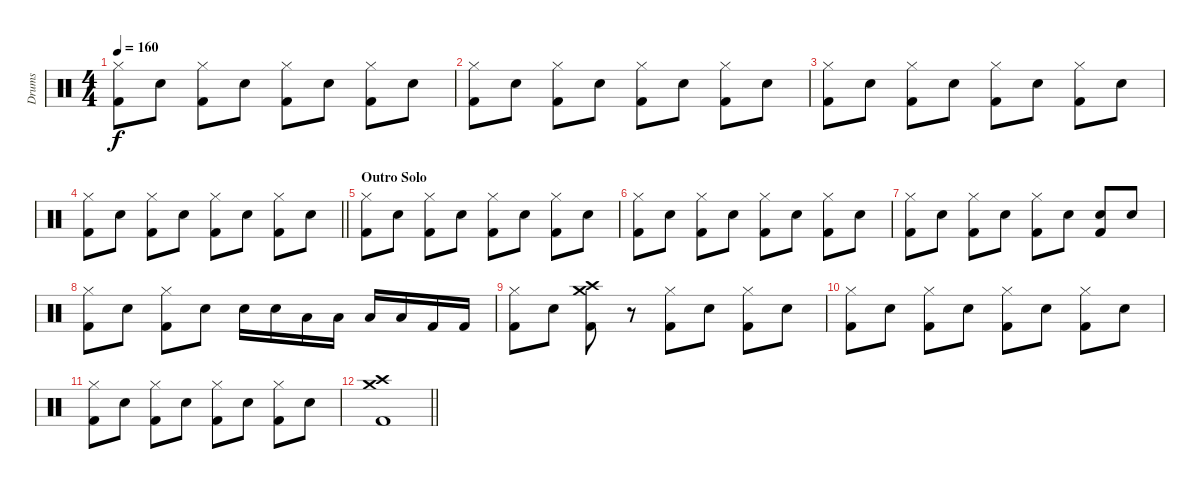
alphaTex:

\track ("Drums" "Drums") {instrument percussion}
\staff {score}
\articulation defaults
\ts (4 4)
\tempo 160
\clef neutral
\ks c
("Hi-Hat (closed)" "Kick (hit) 2").8{dy f} "Snare (hit) 2".8 ("Hi-Hat (closed)" "Kick (hit) 2").8 "Snare (hit) 2".8 ("Hi-Hat (closed)" "Kick (hit) 2").8 "Snare (hit) 2".8 ("Hi-Hat (closed)" "Kick (hit) 2").8 "Snare (hit) 2".8 |
("Hi-Hat (closed)" "Kick (hit) 2").8 "Snare (hit) 2".8 ("Hi-Hat (closed)" "Kick (hit) 2").8 "Snare (hit) 2".8 ("Hi-Hat (closed)" "Kick (hit) 2").8 "Snare (hit) 2".8 ("Hi-Hat (closed)" "Kick (hit) 2").8 "Snare (hit) 2".8 |
("Hi-Hat (closed)" "Kick (hit) 2").8 "Snare (hit) 2".8 ("Hi-Hat (closed)" "Kick (hit) 2").8 "Snare (hit) 2".8 ("Hi-Hat (closed)" "Kick (hit) 2").8 "Snare (hit) 2".8 ("Hi-Hat (closed)" "Kick (hit) 2").8 "Snare (hit) 2".8 |
\barLineRight lightlight
("Hi-Hat (closed)" "Kick (hit) 2").8 "Snare (hit) 2".8 ("Hi-Hat (closed)" "Kick (hit) 2").8 "Snare (hit) 2".8 ("Hi-Hat (closed)" "Kick (hit) 2").8 "Snare (hit) 2".8 ("Hi-Hat (closed)" "Kick (hit) 2").8 "Snare (hit) 2".8 |
\section ("" "Outro Solo")
("Hi-Hat (closed)" "Kick (hit) 2").8 "Snare (hit) 2".8 ("Hi-Hat (closed)" "Kick (hit) 2").8 "Snare (hit) 2".8 ("Hi-Hat (closed)" "Kick (hit) 2").8 "Snare (hit) 2".8 ("Hi-Hat (closed)" "Kick (hit) 2").8 "Snare (hit) 2".8 |
("Hi-Hat (closed)" "Kick (hit) 2").8 "Snare (hit) 2".8 ("Hi-Hat (closed)" "Kick (hit) 2").8 "Snare (hit) 2".8 ("Hi-Hat (closed)" "Kick (hit) 2").8 "Snare (hit) 2".8 ("Hi-Hat (closed)" "Kick (hit) 2").8 "Snare (hit) 2".8 |
("Hi-Hat (closed)" "Kick (hit) 2").8 "Snare (hit) 2".8 ("Hi-Hat (closed)" "Kick (hit) 2").8 "Snare (hit) 2".8 ("Hi-Hat (closed)" "Kick (hit) 2").8 "Snare (hit) 2".8 ("Snare (hit) 2" "Kick (hit) 2").8 "Snare (hit) 2".8 |
("Hi-Hat (closed)" "Kick (hit) 2").8 "Snare (hit) 2".8 ("Hi-Hat (closed)" "Kick (hit) 2").8 "Snare (hit) 2".8 "Snare (hit) 2".16 "Snare (hit) 2".16 "Low Tom (hit)".16 "Low Tom (hit)".16 "Low Floor Tom (hit)".16 "Low Floor Tom (hit)".16 "Kick (hit) 2".16 "Kick (hit) 2".16 |
("Hi-Hat (closed)" "Kick (hit) 2").8 "Snare (hit) 2".8 ("Crash high (hit)" "Crash medium (hit)" "Kick (hit) 2").8 r.8 ("Hi-Hat (closed)" "Kick (hit) 2").8 "Snare (hit) 2".8 ("Hi-Hat (closed)" "Kick (hit) 2").8 "Snare (hit) 2".8 |
("Hi-Hat (closed)" "Kick (hit) 2").8 "Snare (hit) 2".8 ("Hi-Hat (closed)" "Kick (hit) 2").8 "Snare (hit) 2".8 ("Hi-Hat (closed)" "Kick (hit) 2").8 "Snare (hit) 2".8 ("Hi-Hat (closed)" "Kick (hit) 2").8 "Snare (hit) 2".8 |
("Hi-Hat (closed)" "Kick (hit) 2").8 "Snare (hit) 2".8 ("Hi-Hat (closed)" "Kick (hit) 2").8 "Snare (hit) 2".8 ("Hi-Hat (closed)" "Kick (hit) 2").8 "Snare (hit) 2".8 ("Hi-Hat (closed)" "Kick (hit) 2").8 "Snare (hit) 2".8 |
\barLineRight lightlight
("Crash high (hit)" "Crash medium (hit)" "Kick (hit) 2").1
